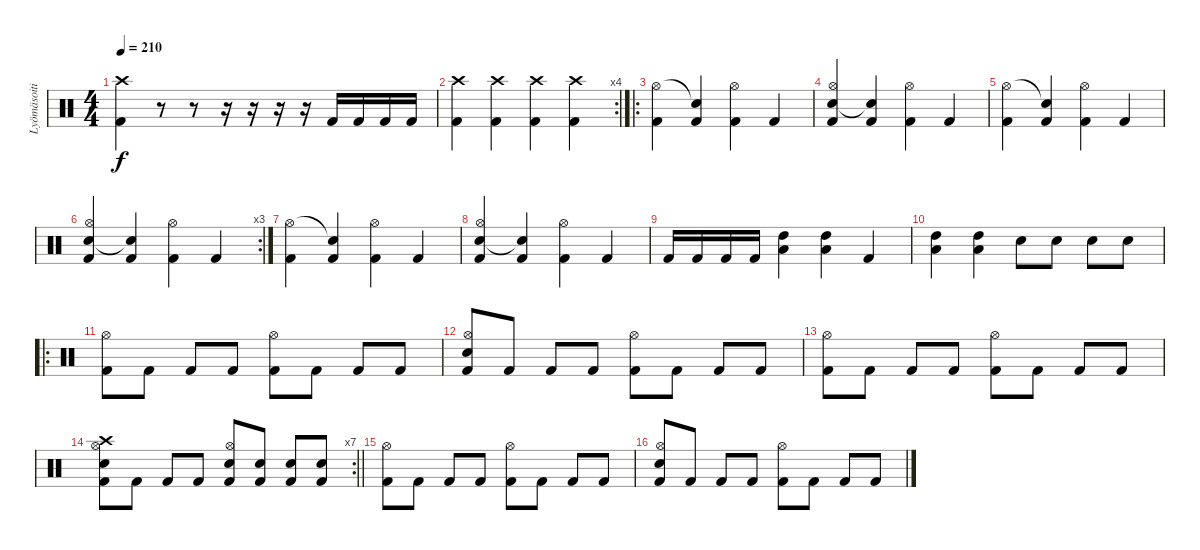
\track ("Lyömäsoitin" "Lyömäsoiti") {instrument percussion}
\staff {score}
\articulation defaults
\ts (4 4)
\tempo 210
\clef neutral
\ks c
("Crash high (hit)" "Kick (hit) 2").4{dy f} r.8 r.8 r.16 r.16 r.16 r.16 "Kick (hit) 2".16 "Kick (hit) 2".16 "Kick (hit) 2".16 "Kick (hit) 2".16 |
\rc 4
("Crash high (hit)" "Kick (hit) 2").4 ("Crash high (hit)" "Kick (hit) 2").4 ("Crash high (hit)" "Kick (hit) 2").4 ("Crash high (hit)" "Kick (hit) 2").4 |
\ro
("Hi-Hat (open)" "Kick (hit) 2").4 ("Snare (hit)"{t} "Kick (hit) 2").4 ("Hi-Hat (open)" "Kick (hit) 2").4 "Kick (hit) 2".4 |
("Electric Snare (hit)" "Hi-Hat (open)" "Kick (hit) 2").4 ("Snare (hit)"{t} "Kick (hit) 2").4 ("Hi-Hat (open)" "Kick (hit) 2").4 "Kick (hit) 2".4 |
("Hi-Hat (open)" "Kick (hit) 2").4 ("Snare (hit)"{t} "Kick (hit) 2").4 ("Hi-Hat (open)" "Kick (hit) 2").4 "Kick (hit) 2".4 |
\rc 3
("Electric Snare (hit)" "Hi-Hat (open)" "Kick (hit) 2").4 ("Snare (hit)"{t} "Kick (hit) 2").4 ("Hi-Hat (open)" "Kick (hit) 2").4 "Kick (hit) 2".4 |
("Hi-Hat (open)" "Kick (hit) 2").4 ("Snare (hit)"{t} "Kick (hit) 2").4 ("Hi-Hat (open)" "Kick (hit) 2").4 "Kick (hit) 2".4 |
("Electric Snare (hit)" "Hi-Hat (open)" "Kick (hit) 2").4 ("Snare (hit)"{t} "Kick (hit) 2").4 ("Hi-Hat (open)" "Kick (hit) 2").4 "Kick (hit) 2".4 |
"Kick (hit) 2".16 "Kick (hit) 2".16 "Kick (hit) 2".16 "Kick (hit) 2".16 ("High Tom (hit)" "Low Floor Tom (hit)").4 ("High Tom (hit)" "Low Floor Tom (hit)").4 "Kick (hit) 2".4 |
("High Tom (hit)" "Low Floor Tom (hit)").4 ("High Tom (hit)" "Low Floor Tom (hit)").4 "Electric Snare (hit)".8 "Electric Snare (hit)".8 "Electric Snare (hit)".8 "Electric Snare (hit)".8 |
\ro
("Hi-Hat (open)" "Kick (hit) 2").8 "Kick (hit) 2".8 "Kick (hit) 2".8 "Kick (hit) 2".8 ("Hi-Hat (open)" "Kick (hit) 2").8 "Kick (hit) 2".8 "Kick (hit) 2".8 "Kick (hit) 2".8 |
("Hi-Hat (open)" "Electric Snare (hit)" "Kick (hit) 2").8 "Kick (hit) 2".8 "Kick (hit) 2".8 "Kick (hit) 2".8 ("Hi-Hat (open)" "Kick (hit) 2").8 "Kick (hit) 2".8 "Kick (hit) 2".8 "Kick (hit) 2".8 |
("Hi-Hat (open)" "Kick (hit) 2").8 "Kick (hit) 2".8 "Kick (hit) 2".8 "Kick (hit) 2".8 ("Hi-Hat (open)" "Kick (hit) 2").8 "Kick (hit) 2".8 "Kick (hit) 2".8 "Kick (hit) 2".8 |
\rc 7
\barLineRight lightlight
("Crash high (hit)" "Hi-Hat (open)" "Electric Snare (hit)" "Kick (hit) 2").8 "Kick (hit) 2".8 "Kick (hit) 2".8 "Kick (hit) 2".8 ("Hi-Hat (open)" "Electric Snare (hit)" "Kick (hit) 2").8 ("Electric Snare (hit)" "Kick (hit) 2").8 ("Electric Snare (hit)" "Kick (hit) 2").8 ("Electric Snare (hit)" "Kick (hit) 2").8 |
("Hi-Hat (open)" "Kick (hit) 2").8 "Kick (hit) 2".8 "Kick (hit) 2".8 "Kick (hit) 2".8 ("Hi-Hat (open)" "Kick (hit) 2").8 "Kick (hit) 2".8 "Kick (hit) 2".8 "Kick (hit) 2".8 |
("Hi-Hat (open)" "Electric Snare (hit)" "Kick (hit) 2").8 "Kick (hit) 2".8 "Kick (hit) 2".8 "Kick (hit) 2".8 ("Hi-Hat (open)" "Kick (hit) 2").8 "Kick (hit) 2".8 "Kick (hit) 2".8 "Kick (hit) 2".8
